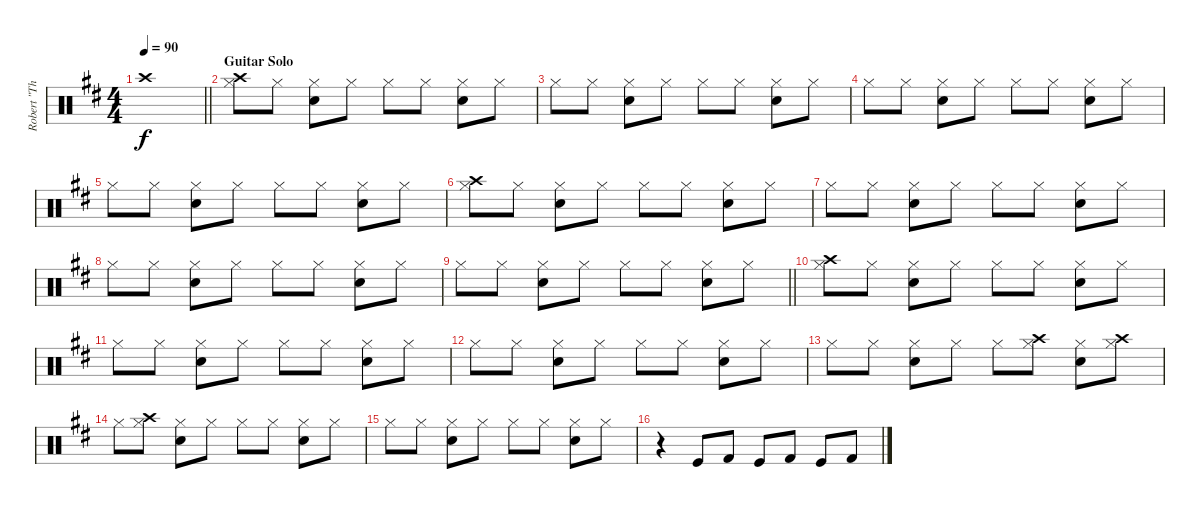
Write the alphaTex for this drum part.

\track ("Robert \"The Visual Timekeeper\" Sweet [Dr" "Robert \"Th") {instrument percussion}
\staff {score}
\articulation defaults
\ts (4 4)
\tempo 90
\clef neutral
\barLineRight lightlight
\ks d "Crash high (hit)".1{dy f}
|
\section ("" "Guitar Solo")
("Crash high (hit)" "Hi-Hat (closed)").8 "Hi-Hat (closed)".8 ("Hi-Hat (closed)" "Snare (hit) 2").8 "Hi-Hat (closed)".8 "Hi-Hat (closed)".8 "Hi-Hat (closed)".8 ("Hi-Hat (closed)" "Snare (hit) 2").8 "Hi-Hat (closed)".8 |
"Hi-Hat (closed)".8 "Hi-Hat (closed)".8 ("Hi-Hat (closed)" "Snare (hit) 2").8 "Hi-Hat (closed)".8 "Hi-Hat (closed)".8 "Hi-Hat (closed)".8 ("Hi-Hat (closed)" "Snare (hit) 2").8 "Hi-Hat (closed)".8 |
"Hi-Hat (closed)".8 "Hi-Hat (closed)".8 ("Hi-Hat (closed)" "Snare (hit) 2").8 "Hi-Hat (closed)".8 "Hi-Hat (closed)".8 "Hi-Hat (closed)".8 ("Hi-Hat (closed)" "Snare (hit) 2").8 "Hi-Hat (closed)".8 |
"Hi-Hat (closed)".8 "Hi-Hat (closed)".8 ("Hi-Hat (closed)" "Snare (hit) 2").8 "Hi-Hat (closed)".8 "Hi-Hat (closed)".8 "Hi-Hat (closed)".8 ("Hi-Hat (closed)" "Snare (hit) 2").8 "Hi-Hat (closed)".8 |
("Crash high (hit)" "Hi-Hat (closed)").8 "Hi-Hat (closed)".8 ("Hi-Hat (closed)" "Snare (hit) 2").8 "Hi-Hat (closed)".8 "Hi-Hat (closed)".8 "Hi-Hat (closed)".8 ("Hi-Hat (closed)" "Snare (hit) 2").8 "Hi-Hat (closed)".8 |
"Hi-Hat (closed)".8 "Hi-Hat (closed)".8 ("Hi-Hat (closed)" "Snare (hit) 2").8 "Hi-Hat (closed)".8 "Hi-Hat (closed)".8 "Hi-Hat (closed)".8 ("Hi-Hat (closed)" "Snare (hit) 2").8 "Hi-Hat (closed)".8 |
"Hi-Hat (closed)".8 "Hi-Hat (closed)".8 ("Hi-Hat (closed)" "Snare (hit) 2").8 "Hi-Hat (closed)".8 "Hi-Hat (closed)".8 "Hi-Hat (closed)".8 ("Hi-Hat (closed)" "Snare (hit) 2").8 "Hi-Hat (closed)".8 |
\barLineRight lightlight "Hi-Hat (closed)".8 "Hi-Hat (closed)".8
("Hi-Hat (closed)" "Snare (hit) 2").8 "Hi-Hat (closed)".8 "Hi-Hat (closed)".8 "Hi-Hat (closed)".8 ("Hi-Hat (closed)" "Snare (hit) 2").8 "Hi-Hat (closed)".8 |
("Hi-Hat (closed)" "Crash high (hit)").8 "Hi-Hat (closed)".8 ("Hi-Hat (closed)" "Snare (hit) 2").8 "Hi-Hat (closed)".8 "Hi-Hat (closed)".8 "Hi-Hat (closed)".8 ("Hi-Hat (closed)" "Snare (hit) 2").8 "Hi-Hat (closed)".8 |
"Hi-Hat (closed)".8 "Hi-Hat (closed)".8 ("Hi-Hat (closed)" "Snare (hit) 2").8 "Hi-Hat (closed)".8 "Hi-Hat (closed)".8 "Hi-Hat (closed)".8 ("Hi-Hat (closed)" "Snare (hit) 2").8 "Hi-Hat (closed)".8 |
"Hi-Hat (closed)".8 "Hi-Hat (closed)".8 ("Hi-Hat (closed)" "Snare (hit) 2").8 "Hi-Hat (closed)".8 "Hi-Hat (closed)".8 "Hi-Hat (closed)".8 ("Hi-Hat (closed)" "Snare (hit) 2").8 "Hi-Hat (closed)".8 |
"Hi-Hat (closed)".8 "Hi-Hat (closed)".8 ("Hi-Hat (closed)" "Snare (hit) 2").8 "Hi-Hat (closed)".8 "Hi-Hat (closed)".8 ("Hi-Hat (closed)" "Crash high (hit)").8 ("Hi-Hat (closed)" "Snare (hit) 2").8 ("Hi-Hat (closed)" "Crash high (hit)").8 |
"Hi-Hat (closed)".8 ("Hi-Hat (closed)" "Crash high (hit)").8 ("Hi-Hat (closed)" "Snare (hit) 2").8 "Hi-Hat (closed)".8 "Hi-Hat (closed)".8 "Hi-Hat (closed)".8 ("Hi-Hat (closed)" "Snare (hit) 2").8 "Hi-Hat (closed)".8 |
"Hi-Hat (closed)".8 "Hi-Hat (closed)".8 ("Hi-Hat (closed)" "Snare (hit) 2").8 "Hi-Hat (closed)".8 "Hi-Hat (closed)".8 "Hi-Hat (closed)".8 ("Hi-Hat (closed)" "Snare (hit) 2").8 "Hi-Hat (closed)".8 |
r.4{volume 0} "Kick (hit)".8{volume 16} "Kick (hit) 2".8 "Kick (hit)".8 "Kick (hit) 2".8 "Kick (hit)".8 "Kick (hit) 2".8
